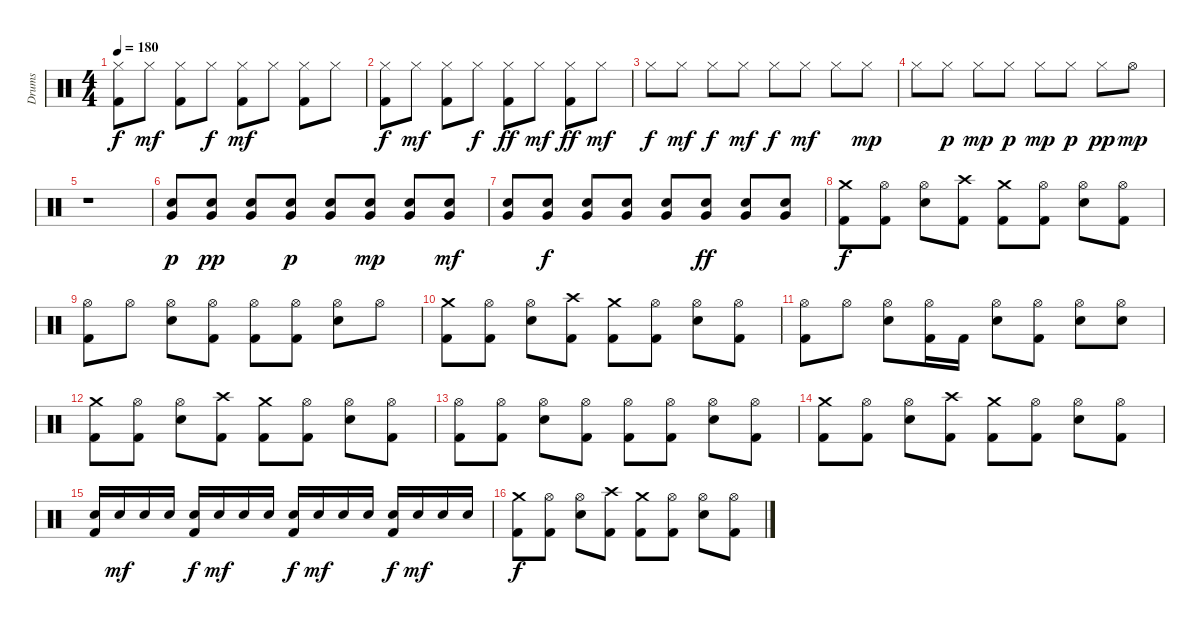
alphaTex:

\track ("Drums" "Drums") {instrument percussion}
\staff {score}
\articulation defaults
\ts (4 4)
\tempo 180
\clef neutral
\ks c
("Hi-Hat (closed)" "Kick (hit) 2").8{dy f} "Hi-Hat (closed)".8{dy mf} ("Hi-Hat (closed)" "Kick (hit) 2").8 "Hi-Hat (closed)".8{dy f} ("Hi-Hat (closed)" "Kick (hit) 2").8{dy mf} "Hi-Hat (closed)".8 ("Hi-Hat (closed)" "Kick (hit) 2").8 "Hi-Hat (closed)".8 |
("Hi-Hat (closed)" "Kick (hit) 2").8{dy f} "Hi-Hat (closed)".8{dy mf} ("Hi-Hat (closed)" "Kick (hit) 2").8 "Hi-Hat (closed)".8{dy f} ("Hi-Hat (closed)" "Kick (hit) 2").8{dy ff} "Hi-Hat (closed)".8{dy mf} ("Hi-Hat (closed)" "Kick (hit) 2").8{dy ff} "Hi-Hat (closed)".8{dy mf} |
"Hi-Hat (closed)".8{dy f} "Hi-Hat (closed)".8{dy mf} "Hi-Hat (closed)".8{dy f} "Hi-Hat (closed)".8{dy mf} "Hi-Hat (closed)".8{dy f} "Hi-Hat (closed)".8{dy mf} "Hi-Hat (closed)".8 "Hi-Hat (closed)".8{dy mp} |
"Hi-Hat (closed)".8 "Hi-Hat (closed)".8{dy p} "Hi-Hat (closed)".8{dy mp} "Hi-Hat (closed)".8{dy p} "Hi-Hat (closed)".8{dy mp} "Hi-Hat (closed)".8{dy p} "Hi-Hat (closed)".8{dy pp} "Hi-Hat (open)".8{dy mp} |
r.1 |
("Very Low Tom (hit)" "Electric Snare (hit)").8{dy p} ("Very Low Tom (hit)" "Electric Snare (hit)").8{dy pp} ("Very Low Tom (hit)" "Electric Snare (hit)").8 ("Very Low Tom (hit)" "Electric Snare (hit)").8{dy p} ("Very Low Tom (hit)" "Electric Snare (hit)").8 ("Very Low Tom (hit)" "Electric Snare (hit)").8{dy mp} ("Very Low Tom (hit)" "Electric Snare (hit)").8 ("Very Low Tom (hit)" "Electric Snare (hit)").8{dy mf} |
("Very Low Tom (hit)" "Electric Snare (hit)").8 ("Very Low Tom (hit)" "Electric Snare (hit)").8{dy f} ("Very Low Tom (hit)" "Electric Snare (hit)").8 ("Very Low Tom (hit)" "Electric Snare (hit)").8 ("Very Low Tom (hit)" "Electric Snare (hit)").8 ("Very Low Tom (hit)" "Electric Snare (hit)").8{dy ff} ("Very Low Tom (hit)" "Electric Snare (hit)").8 ("Very Low Tom (hit)" "Electric Snare (hit)").8 |
("Crash medium (hit)" "Kick (hit) 2").8{dy f} ("Hi-Hat (open)" "Kick (hit) 2").8 ("Hi-Hat (open)" "Electric Snare (hit)").8 ("Crash high (hit)" "Kick (hit) 2").8 ("Crash medium (hit)" "Kick (hit) 2").8 ("Hi-Hat (open)" "Kick (hit) 2").8 ("Hi-Hat (open)" "Electric Snare (hit)").8 ("Hi-Hat (open)" "Kick (hit) 2").8 |
("Hi-Hat (open)" "Kick (hit) 2").8 "Hi-Hat (open)".8 ("Hi-Hat (open)" "Electric Snare (hit)").8 ("Hi-Hat (open)" "Kick (hit) 2").8 ("Hi-Hat (open)" "Kick (hit) 2").8 ("Hi-Hat (open)" "Kick (hit) 2").8 ("Hi-Hat (open)" "Electric Snare (hit)").8 "Hi-Hat (open)".8 |
("Crash medium (hit)" "Kick (hit) 2").8 ("Hi-Hat (open)" "Kick (hit) 2").8 ("Hi-Hat (open)" "Electric Snare (hit)").8 ("Crash high (hit)" "Kick (hit) 2").8 ("Crash medium (hit)" "Kick (hit) 2").8 ("Hi-Hat (open)" "Kick (hit) 2").8 ("Hi-Hat (open)" "Electric Snare (hit)").8 ("Hi-Hat (open)" "Kick (hit) 2").8 |
("Hi-Hat (open)" "Kick (hit) 2").8 "Hi-Hat (open)".8 ("Hi-Hat (open)" "Electric Snare (hit)").8 ("Hi-Hat (open)" "Kick (hit) 2").16 "Kick (hit) 2".16 ("Hi-Hat (open)" "Electric Snare (hit)").8 ("Hi-Hat (open)" "Kick (hit) 2").8 ("Hi-Hat (open)" "Electric Snare (hit)").8 ("Hi-Hat (open)" "Electric Snare (hit)").8 |
("Crash medium (hit)" "Kick (hit) 2").8 ("Hi-Hat (open)" "Kick (hit) 2").8 ("Hi-Hat (open)" "Electric Snare (hit)").8 ("Crash high (hit)" "Kick (hit) 2").8 ("Crash medium (hit)" "Kick (hit) 2").8 ("Hi-Hat (open)" "Kick (hit) 2").8 ("Hi-Hat (open)" "Electric Snare (hit)").8 ("Hi-Hat (open)" "Kick (hit) 2").8 |
("Hi-Hat (open)" "Kick (hit) 2").8 ("Hi-Hat (open)" "Kick (hit) 2").8 ("Hi-Hat (open)" "Electric Snare (hit)").8 ("Hi-Hat (open)" "Kick (hit) 2").8 ("Hi-Hat (open)" "Kick (hit) 2").8 ("Hi-Hat (open)" "Kick (hit) 2").8 ("Hi-Hat (open)" "Electric Snare (hit)").8 ("Hi-Hat (open)" "Kick (hit) 2").8 |
("Crash medium (hit)" "Kick (hit) 2").8 ("Hi-Hat (open)" "Kick (hit) 2").8 ("Hi-Hat (open)" "Electric Snare (hit)").8 ("Crash high (hit)" "Kick (hit) 2").8 ("Crash medium (hit)" "Kick (hit) 2").8 ("Hi-Hat (open)" "Kick (hit) 2").8 ("Hi-Hat (open)" "Electric Snare (hit)").8 ("Hi-Hat (open)" "Kick (hit) 2").8 |
("Electric Snare (hit)" "Kick (hit) 2").16 "Electric Snare (hit)".16{dy mf} "Electric Snare (hit)".16 "Electric Snare (hit)".16 ("Electric Snare (hit)" "Kick (hit) 2").16{dy f} "Electric Snare (hit)".16{dy mf} "Electric Snare (hit)".16 "Electric Snare (hit)".16 ("Electric Snare (hit)" "Kick (hit) 2").16{dy f} "Electric Snare (hit)".16{dy mf} "Electric Snare (hit)".16 "Electric Snare (hit)".16 ("Electric Snare (hit)" "Kick (hit) 2").16{dy f} "Electric Snare (hit)".16{dy mf} "Electric Snare (hit)".16 "Electric Snare (hit)".16 |
("Crash medium (hit)" "Kick (hit) 2").8{dy f} ("Hi-Hat (open)" "Kick (hit) 2").8 ("Hi-Hat (open)" "Electric Snare (hit)").8 ("Crash high (hit)" "Kick (hit) 2").8 ("Crash medium (hit)" "Kick (hit) 2").8 ("Hi-Hat (open)" "Kick (hit) 2").8 ("Hi-Hat (open)" "Electric Snare (hit)").8 ("Hi-Hat (open)" "Kick (hit) 2").8
